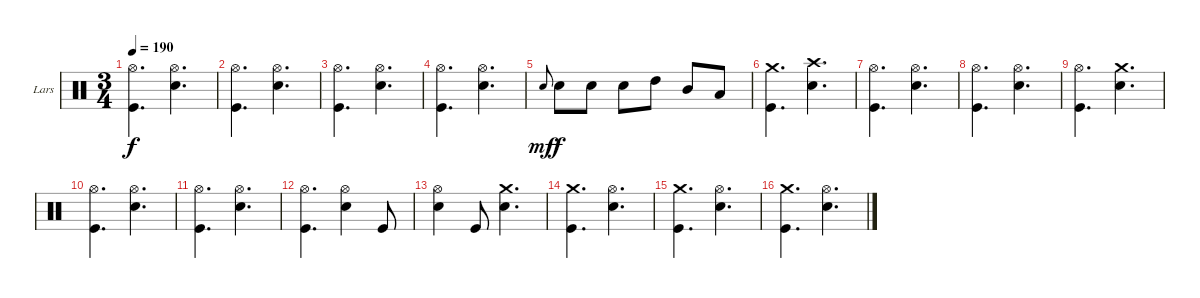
\bracketExtendMode groupsimilarinstruments
\firstSystemTrackNameOrientation horizontal
\otherSystemsTrackNameOrientation horizontal
\track ("Drumkit" "Lars") {instrument percussion}
\staff {score}
\articulation defaults
\ts (3 4)
\tempo 190
\clef neutral
\ks c
("Hi-Hat (open)" "Kick (hit)").4{d dy f} ("Hi-Hat (open)" "Snare (hit) 2").4{d} |
("Hi-Hat (open)" "Kick (hit)").4{d} ("Hi-Hat (open)" "Snare (hit) 2").4{d} |
("Hi-Hat (open)" "Kick (hit)").4{d} ("Hi-Hat (open)" "Snare (hit) 2").4{d} |
("Hi-Hat (open)" "Kick (hit)").4{d} ("Hi-Hat (open)" "Snare (hit) 2").4{d} |
"Snare (hit) 2".8{gr onbeat dy mf} "Snare (hit) 2".8{dy f} "Snare (hit) 2".8 "Snare (hit) 2".8 "High Tom (hit)".8 "Mid Tom (hit)".8 "Low Tom (hit)".8 |
("Crash medium (hit)" "Kick (hit)").4{d} ("Crash high (hit)" "Snare (hit) 2").4{d} |
("Hi-Hat (open)" "Kick (hit)").4{d} ("Hi-Hat (open)" "Snare (hit) 2").4{d} |
("Hi-Hat (open)" "Kick (hit)").4{d} ("Hi-Hat (open)" "Snare (hit) 2").4{d} |
("Hi-Hat (open)" "Kick (hit)").4{d} ("Crash medium (hit)" "Snare (hit) 2").4{d} |
("Hi-Hat (open)" "Kick (hit)").4{d} ("Hi-Hat (open)" "Snare (hit) 2").4{d} |
("Hi-Hat (open)" "Kick (hit)").4{d} ("Hi-Hat (open)" "Snare (hit) 2").4{d} |
("Hi-Hat (open)" "Kick (hit)").4{d} ("Hi-Hat (open)" "Snare (hit) 2").4 "Kick (hit)".8 |
("Hi-Hat (open)" "Snare (hit) 2").4 "Kick (hit)".8 ("Crash medium (hit)" "Snare (hit) 2").4{d} |
("Crash medium (hit)" "Kick (hit)").4{d} ("Hi-Hat (open)" "Snare (hit) 2").4{d} |
("Crash medium (hit)" "Kick (hit)").4{d} ("Hi-Hat (open)" "Snare (hit) 2").4{d} |
("Crash medium (hit)" "Kick (hit)").4{d} ("Hi-Hat (open)" "Snare (hit) 2").4{d}
